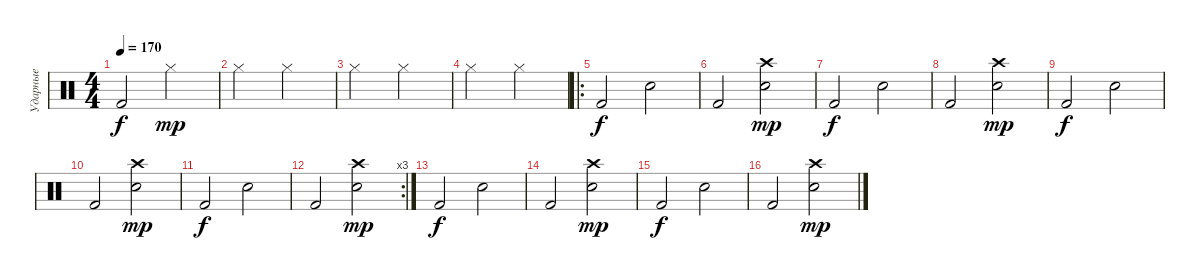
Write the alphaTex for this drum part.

\track ("Ударные" "Ударные") {instrument percussion}
\staff {score}
\articulation defaults
\ts (4 4)
\tempo 170
\clef neutral
\ks c "Kick (hit) 2".2{dy f} "Hi-Hat (closed)".2{dy mp}
|
"Hi-Hat (closed)".2 "Hi-Hat (closed)".2 |
"Hi-Hat (closed)".2 "Hi-Hat (closed)".2 |
"Hi-Hat (closed)".2 "Hi-Hat (closed)".2 |
\ro "Kick (hit) 2".2{dy f} "Electric Snare (hit)".2
|
"Kick (hit) 2".2 ("Electric Snare (hit)" "Crash high (hit)").2{dy mp} |
"Kick (hit) 2".2{dy f} "Electric Snare (hit)".2 |
"Kick (hit) 2".2 ("Electric Snare (hit)" "Crash high (hit)").2{dy mp} |
"Kick (hit) 2".2{dy f} "Electric Snare (hit)".2 |
"Kick (hit) 2".2 ("Electric Snare (hit)" "Crash high (hit)").2{dy mp} |
"Kick (hit) 2".2{dy f} "Electric Snare (hit)".2 |
\rc 3 "Kick (hit) 2".2
("Electric Snare (hit)" "Crash high (hit)").2{dy mp} |
"Kick (hit) 2".2{dy f} "Electric Snare (hit)".2 |
"Kick (hit) 2".2 ("Electric Snare (hit)" "Crash high (hit)").2{dy mp} |
"Kick (hit) 2".2{dy f} "Electric Snare (hit)".2 |
"Kick (hit) 2".2 ("Electric Snare (hit)" "Crash high (hit)").2{dy mp}
